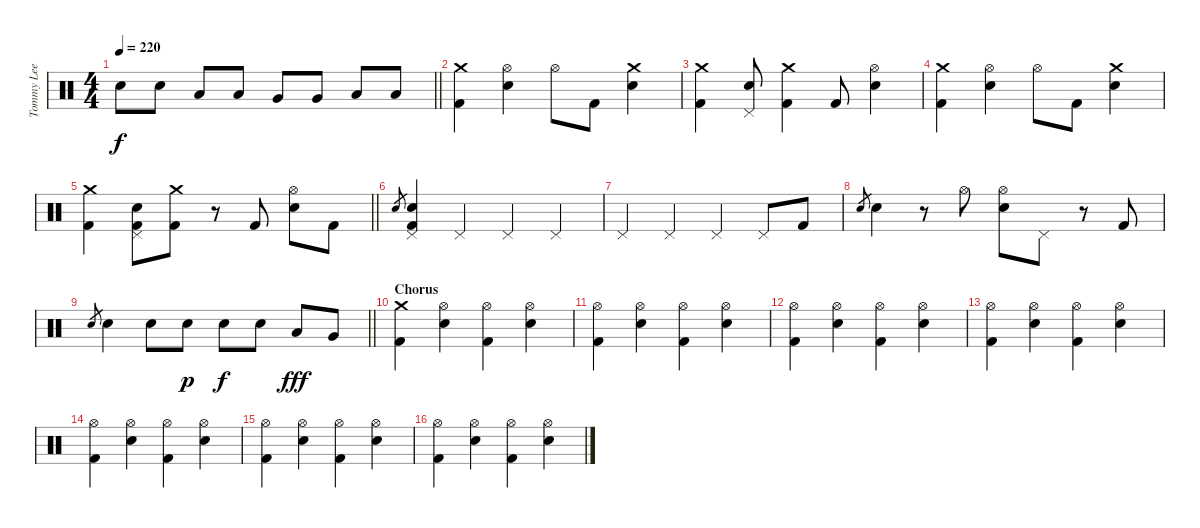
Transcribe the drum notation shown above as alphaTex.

\track ("Tommy Lee - Drums" "Tommy Lee ") {instrument percussion}
\staff {score}
\articulation defaults
\ts (4 4)
\tempo 220
\clef neutral
\barLineRight lightlight
\ks c "Electric Snare (hit)".8{dy f} "Electric Snare (hit)".8 "Low Tom (hit)".8 "Low Tom (hit)".8 "Very Low Tom (hit)".8 "Very Low Tom (hit)".8 "Low Floor Tom (hit)".8 "Low Floor Tom (hit)".8
|
("Crash medium (hit)" "Kick (hit) 2").4 ("Hi-Hat (open)" "Electric Snare (hit)").4 "Hi-Hat (open)".8 "Kick (hit) 2".8 ("Crash medium (hit)" "Electric Snare (hit)").4 |
("Crash medium (hit)" "Kick (hit) 2").4 ("Pedal Hi-Hat (hit)" "Electric Snare (hit)").8 ("Crash medium (hit)" "Kick (hit) 2").4 "Kick (hit) 2".8 ("Hi-Hat (open)" "Electric Snare (hit)").4 |
("Crash medium (hit)" "Kick (hit) 2").4 ("Hi-Hat (open)" "Electric Snare (hit)").4 "Hi-Hat (open)".8 "Kick (hit) 2".8 ("Crash medium (hit)" "Electric Snare (hit)").4 |
\barLineRight lightlight
("Crash medium (hit)" "Kick (hit) 2").4 ("Pedal Hi-Hat (hit)" "Electric Snare (hit)" "Kick (hit) 2").8 ("Crash medium (hit)" "Kick (hit) 2").8 r.8 "Kick (hit) 2".8 ("Hi-Hat (open)" "Electric Snare (hit)").8 "Kick (hit) 2".8 |
\section ("" "")
"Electric Snare (hit)".8{gr} ("Pedal Hi-Hat (hit)" "Electric Snare (hit)" "Kick (hit) 2").4 "Pedal Hi-Hat (hit)".4 "Pedal Hi-Hat (hit)".4 "Pedal Hi-Hat (hit)".4 |
"Pedal Hi-Hat (hit)".4 "Pedal Hi-Hat (hit)".4 "Pedal Hi-Hat (hit)".4 "Pedal Hi-Hat (hit)".8 "Kick (hit) 2".8 |
"Electric Snare (hit)".8{gr} "Electric Snare (hit)".4 r.8 "Hi-Hat (open)".8 ("Hi-Hat (open)" "Electric Snare (hit)").8 "Pedal Hi-Hat (hit)".8 r.8 "Kick (hit) 2".8 |
\barLineRight lightlight "Electric Snare (hit)".8{gr} "Electric Snare (hit)".4 "Electric Snare (hit)".8 "Electric Snare (hit)".8{dy p} "Electric Snare (hit)".8{dy f} "Electric Snare (hit)".8 "Low Tom (hit)".8{dy fff} "Very Low Tom (hit)".8
|
\section ("" "Chorus")
("Crash medium (hit)" "Kick (hit) 2").4 ("Hi-Hat (open)" "Electric Snare (hit)").4 ("Hi-Hat (open)" "Kick (hit) 2").4 ("Hi-Hat (open)" "Electric Snare (hit)").4 |
("Hi-Hat (open)" "Kick (hit) 2").4 ("Hi-Hat (open)" "Electric Snare (hit)").4 ("Hi-Hat (open)" "Kick (hit) 2").4 ("Hi-Hat (open)" "Electric Snare (hit)").4 |
("Hi-Hat (open)" "Kick (hit) 2").4 ("Hi-Hat (open)" "Electric Snare (hit)").4 ("Hi-Hat (open)" "Kick (hit) 2").4 ("Hi-Hat (open)" "Electric Snare (hit)").4 |
("Hi-Hat (open)" "Kick (hit) 2").4 ("Hi-Hat (open)" "Electric Snare (hit)").4 ("Hi-Hat (open)" "Kick (hit) 2").4 ("Hi-Hat (open)" "Electric Snare (hit)").4 |
("Hi-Hat (open)" "Kick (hit) 2").4 ("Hi-Hat (open)" "Electric Snare (hit)").4 ("Hi-Hat (open)" "Kick (hit) 2").4 ("Hi-Hat (open)" "Electric Snare (hit)").4 |
("Hi-Hat (open)" "Kick (hit) 2").4 ("Hi-Hat (open)" "Electric Snare (hit)").4 ("Hi-Hat (open)" "Kick (hit) 2").4 ("Hi-Hat (open)" "Electric Snare (hit)").4 |
("Hi-Hat (open)" "Kick (hit) 2").4 ("Hi-Hat (open)" "Electric Snare (hit)").4 ("Hi-Hat (open)" "Kick (hit) 2").4 ("Hi-Hat (open)" "Electric Snare (hit)").4
